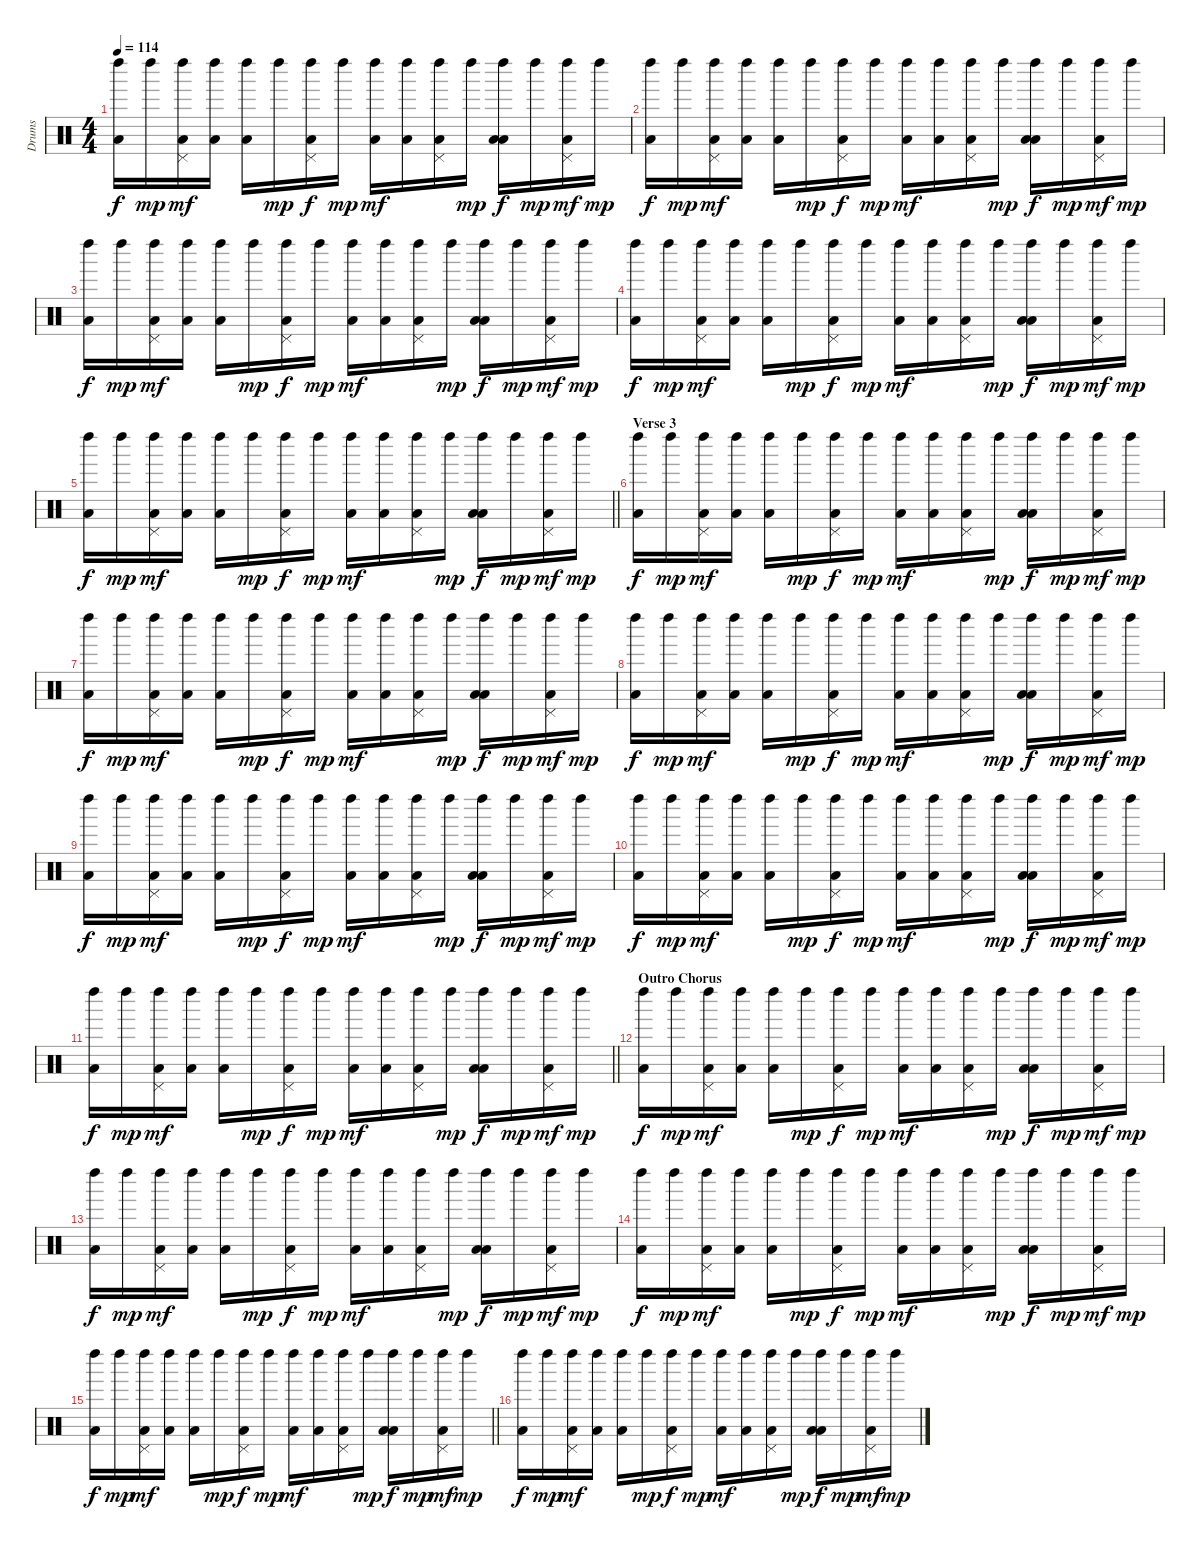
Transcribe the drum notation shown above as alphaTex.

\track ("Drums" "Drums") {instrument percussion}
\staff {score}
\articulation defaults
\ts (4 4)
\tempo 114
\clef neutral
\ks c
("Left Maraca (hit)" "Low Floor Tom (hit)").16{dy f} "Left Maraca (hit)".16{dy mp} ("Pedal Hi-Hat (hit)" "Left Maraca (hit)" "Low Floor Tom (hit)").16{dy mf} ("Left Maraca (hit)" "Low Tom (hit)").16 ("Left Maraca (hit)" "Low Floor Tom (hit)").16 "Left Maraca (hit)".16{dy mp} ("Pedal Hi-Hat (hit)" "Left Maraca (hit)" "Low Floor Tom (hit)").16{dy f} "Left Maraca (hit)".16{dy mp} ("Left Maraca (hit)" "Low Floor Tom (hit)").16{dy mf} ("Left Maraca (hit)" "Low Tom (hit)").16 ("Pedal Hi-Hat (hit)" "Left Maraca (hit)" "Low Floor Tom (hit)").16 "Left Maraca (hit)".16{dy mp} ("Left Maraca (hit)" "Low Tom (hit)" "Low Floor Tom (hit)").16{dy f} "Left Maraca (hit)".16{dy mp} ("Pedal Hi-Hat (hit)" "Left Maraca (hit)" "Low Floor Tom (hit)").16{dy mf} "Left Maraca (hit)".16{dy mp} |
("Left Maraca (hit)" "Low Floor Tom (hit)").16{dy f} "Left Maraca (hit)".16{dy mp} ("Pedal Hi-Hat (hit)" "Left Maraca (hit)" "Low Floor Tom (hit)").16{dy mf} ("Left Maraca (hit)" "Low Tom (hit)").16 ("Left Maraca (hit)" "Low Floor Tom (hit)").16 "Left Maraca (hit)".16{dy mp} ("Pedal Hi-Hat (hit)" "Left Maraca (hit)" "Low Floor Tom (hit)").16{dy f} "Left Maraca (hit)".16{dy mp} ("Left Maraca (hit)" "Low Floor Tom (hit)").16{dy mf} ("Left Maraca (hit)" "Low Tom (hit)").16 ("Pedal Hi-Hat (hit)" "Left Maraca (hit)" "Low Floor Tom (hit)").16 "Left Maraca (hit)".16{dy mp} ("Left Maraca (hit)" "Low Tom (hit)" "Low Floor Tom (hit)").16{dy f} "Left Maraca (hit)".16{dy mp} ("Pedal Hi-Hat (hit)" "Left Maraca (hit)" "Low Floor Tom (hit)").16{dy mf} "Left Maraca (hit)".16{dy mp} |
("Left Maraca (hit)" "Low Floor Tom (hit)").16{dy f} "Left Maraca (hit)".16{dy mp} ("Pedal Hi-Hat (hit)" "Left Maraca (hit)" "Low Floor Tom (hit)").16{dy mf} ("Left Maraca (hit)" "Low Tom (hit)").16 ("Left Maraca (hit)" "Low Floor Tom (hit)").16 "Left Maraca (hit)".16{dy mp} ("Pedal Hi-Hat (hit)" "Left Maraca (hit)" "Low Floor Tom (hit)").16{dy f} "Left Maraca (hit)".16{dy mp} ("Left Maraca (hit)" "Low Floor Tom (hit)").16{dy mf} ("Left Maraca (hit)" "Low Tom (hit)").16 ("Pedal Hi-Hat (hit)" "Left Maraca (hit)" "Low Floor Tom (hit)").16 "Left Maraca (hit)".16{dy mp} ("Left Maraca (hit)" "Low Tom (hit)" "Low Floor Tom (hit)").16{dy f} "Left Maraca (hit)".16{dy mp} ("Pedal Hi-Hat (hit)" "Left Maraca (hit)" "Low Floor Tom (hit)").16{dy mf} "Left Maraca (hit)".16{dy mp} |
("Left Maraca (hit)" "Low Floor Tom (hit)").16{dy f} "Left Maraca (hit)".16{dy mp} ("Pedal Hi-Hat (hit)" "Left Maraca (hit)" "Low Floor Tom (hit)").16{dy mf} ("Left Maraca (hit)" "Low Tom (hit)").16 ("Left Maraca (hit)" "Low Floor Tom (hit)").16 "Left Maraca (hit)".16{dy mp} ("Pedal Hi-Hat (hit)" "Left Maraca (hit)" "Low Floor Tom (hit)").16{dy f} "Left Maraca (hit)".16{dy mp} ("Left Maraca (hit)" "Low Floor Tom (hit)").16{dy mf} ("Left Maraca (hit)" "Low Tom (hit)").16 ("Pedal Hi-Hat (hit)" "Left Maraca (hit)" "Low Floor Tom (hit)").16 "Left Maraca (hit)".16{dy mp} ("Left Maraca (hit)" "Low Tom (hit)" "Low Floor Tom (hit)").16{dy f} "Left Maraca (hit)".16{dy mp} ("Pedal Hi-Hat (hit)" "Left Maraca (hit)" "Low Floor Tom (hit)").16{dy mf} "Left Maraca (hit)".16{dy mp} |
\barLineRight lightlight
("Left Maraca (hit)" "Low Floor Tom (hit)").16{dy f} "Left Maraca (hit)".16{dy mp} ("Pedal Hi-Hat (hit)" "Left Maraca (hit)" "Low Floor Tom (hit)").16{dy mf} ("Left Maraca (hit)" "Low Tom (hit)").16 ("Left Maraca (hit)" "Low Floor Tom (hit)").16 "Left Maraca (hit)".16{dy mp} ("Pedal Hi-Hat (hit)" "Left Maraca (hit)" "Low Floor Tom (hit)").16{dy f} "Left Maraca (hit)".16{dy mp} ("Left Maraca (hit)" "Low Floor Tom (hit)").16{dy mf} ("Left Maraca (hit)" "Low Tom (hit)").16 ("Pedal Hi-Hat (hit)" "Left Maraca (hit)" "Low Floor Tom (hit)").16 "Left Maraca (hit)".16{dy mp} ("Left Maraca (hit)" "Low Tom (hit)" "Low Floor Tom (hit)").16{dy f} "Left Maraca (hit)".16{dy mp} ("Pedal Hi-Hat (hit)" "Left Maraca (hit)" "Low Floor Tom (hit)").16{dy mf} "Left Maraca (hit)".16{dy mp} |
\section ("" "Verse 3")
("Left Maraca (hit)" "Low Floor Tom (hit)").16{dy f} "Left Maraca (hit)".16{dy mp} ("Pedal Hi-Hat (hit)" "Left Maraca (hit)" "Low Floor Tom (hit)").16{dy mf} ("Left Maraca (hit)" "Low Tom (hit)").16 ("Left Maraca (hit)" "Low Floor Tom (hit)").16 "Left Maraca (hit)".16{dy mp} ("Pedal Hi-Hat (hit)" "Left Maraca (hit)" "Low Floor Tom (hit)").16{dy f} "Left Maraca (hit)".16{dy mp} ("Left Maraca (hit)" "Low Floor Tom (hit)").16{dy mf} ("Left Maraca (hit)" "Low Tom (hit)").16 ("Pedal Hi-Hat (hit)" "Left Maraca (hit)" "Low Floor Tom (hit)").16 "Left Maraca (hit)".16{dy mp} ("Left Maraca (hit)" "Low Tom (hit)" "Low Floor Tom (hit)").16{dy f} "Left Maraca (hit)".16{dy mp} ("Pedal Hi-Hat (hit)" "Left Maraca (hit)" "Low Floor Tom (hit)").16{dy mf} "Left Maraca (hit)".16{dy mp} |
("Left Maraca (hit)" "Low Floor Tom (hit)").16{dy f} "Left Maraca (hit)".16{dy mp} ("Pedal Hi-Hat (hit)" "Left Maraca (hit)" "Low Floor Tom (hit)").16{dy mf} ("Left Maraca (hit)" "Low Tom (hit)").16 ("Left Maraca (hit)" "Low Floor Tom (hit)").16 "Left Maraca (hit)".16{dy mp} ("Pedal Hi-Hat (hit)" "Left Maraca (hit)" "Low Floor Tom (hit)").16{dy f} "Left Maraca (hit)".16{dy mp} ("Left Maraca (hit)" "Low Floor Tom (hit)").16{dy mf} ("Left Maraca (hit)" "Low Tom (hit)").16 ("Pedal Hi-Hat (hit)" "Left Maraca (hit)" "Low Floor Tom (hit)").16 "Left Maraca (hit)".16{dy mp} ("Left Maraca (hit)" "Low Tom (hit)" "Low Floor Tom (hit)").16{dy f} "Left Maraca (hit)".16{dy mp} ("Pedal Hi-Hat (hit)" "Left Maraca (hit)" "Low Floor Tom (hit)").16{dy mf} "Left Maraca (hit)".16{dy mp} |
("Left Maraca (hit)" "Low Floor Tom (hit)").16{dy f} "Left Maraca (hit)".16{dy mp} ("Pedal Hi-Hat (hit)" "Left Maraca (hit)" "Low Floor Tom (hit)").16{dy mf} ("Left Maraca (hit)" "Low Tom (hit)").16 ("Left Maraca (hit)" "Low Floor Tom (hit)").16 "Left Maraca (hit)".16{dy mp} ("Pedal Hi-Hat (hit)" "Left Maraca (hit)" "Low Floor Tom (hit)").16{dy f} "Left Maraca (hit)".16{dy mp} ("Left Maraca (hit)" "Low Floor Tom (hit)").16{dy mf} ("Left Maraca (hit)" "Low Tom (hit)").16 ("Pedal Hi-Hat (hit)" "Left Maraca (hit)" "Low Floor Tom (hit)").16 "Left Maraca (hit)".16{dy mp} ("Left Maraca (hit)" "Low Tom (hit)" "Low Floor Tom (hit)").16{dy f} "Left Maraca (hit)".16{dy mp} ("Pedal Hi-Hat (hit)" "Left Maraca (hit)" "Low Floor Tom (hit)").16{dy mf} "Left Maraca (hit)".16{dy mp} |
("Left Maraca (hit)" "Low Floor Tom (hit)").16{dy f} "Left Maraca (hit)".16{dy mp} ("Pedal Hi-Hat (hit)" "Left Maraca (hit)" "Low Floor Tom (hit)").16{dy mf} ("Left Maraca (hit)" "Low Tom (hit)").16 ("Left Maraca (hit)" "Low Floor Tom (hit)").16 "Left Maraca (hit)".16{dy mp} ("Pedal Hi-Hat (hit)" "Left Maraca (hit)" "Low Floor Tom (hit)").16{dy f} "Left Maraca (hit)".16{dy mp} ("Left Maraca (hit)" "Low Floor Tom (hit)").16{dy mf} ("Left Maraca (hit)" "Low Tom (hit)").16 ("Pedal Hi-Hat (hit)" "Left Maraca (hit)" "Low Floor Tom (hit)").16 "Left Maraca (hit)".16{dy mp} ("Left Maraca (hit)" "Low Tom (hit)" "Low Floor Tom (hit)").16{dy f} "Left Maraca (hit)".16{dy mp} ("Pedal Hi-Hat (hit)" "Left Maraca (hit)" "Low Floor Tom (hit)").16{dy mf} "Left Maraca (hit)".16{dy mp} |
("Left Maraca (hit)" "Low Floor Tom (hit)").16{dy f} "Left Maraca (hit)".16{dy mp} ("Pedal Hi-Hat (hit)" "Left Maraca (hit)" "Low Floor Tom (hit)").16{dy mf} ("Left Maraca (hit)" "Low Tom (hit)").16 ("Left Maraca (hit)" "Low Floor Tom (hit)").16 "Left Maraca (hit)".16{dy mp} ("Pedal Hi-Hat (hit)" "Left Maraca (hit)" "Low Floor Tom (hit)").16{dy f} "Left Maraca (hit)".16{dy mp} ("Left Maraca (hit)" "Low Floor Tom (hit)").16{dy mf} ("Left Maraca (hit)" "Low Tom (hit)").16 ("Pedal Hi-Hat (hit)" "Left Maraca (hit)" "Low Floor Tom (hit)").16 "Left Maraca (hit)".16{dy mp} ("Left Maraca (hit)" "Low Tom (hit)" "Low Floor Tom (hit)").16{dy f} "Left Maraca (hit)".16{dy mp} ("Pedal Hi-Hat (hit)" "Left Maraca (hit)" "Low Floor Tom (hit)").16{dy mf} "Left Maraca (hit)".16{dy mp} |
\barLineRight lightlight
("Left Maraca (hit)" "Low Floor Tom (hit)").16{dy f} "Left Maraca (hit)".16{dy mp} ("Pedal Hi-Hat (hit)" "Left Maraca (hit)" "Low Floor Tom (hit)").16{dy mf} ("Left Maraca (hit)" "Low Tom (hit)").16 ("Left Maraca (hit)" "Low Floor Tom (hit)").16 "Left Maraca (hit)".16{dy mp} ("Pedal Hi-Hat (hit)" "Left Maraca (hit)" "Low Floor Tom (hit)").16{dy f} "Left Maraca (hit)".16{dy mp} ("Left Maraca (hit)" "Low Floor Tom (hit)").16{dy mf} ("Left Maraca (hit)" "Low Tom (hit)").16 ("Pedal Hi-Hat (hit)" "Left Maraca (hit)" "Low Floor Tom (hit)").16 "Left Maraca (hit)".16{dy mp} ("Left Maraca (hit)" "Low Tom (hit)" "Low Floor Tom (hit)").16{dy f} "Left Maraca (hit)".16{dy mp} ("Pedal Hi-Hat (hit)" "Left Maraca (hit)" "Low Floor Tom (hit)").16{dy mf} "Left Maraca (hit)".16{dy mp} |
\section ("" "Outro Chorus")
("Left Maraca (hit)" "Low Floor Tom (hit)").16{dy f} "Left Maraca (hit)".16{dy mp} ("Pedal Hi-Hat (hit)" "Left Maraca (hit)" "Low Floor Tom (hit)").16{dy mf} ("Left Maraca (hit)" "Low Tom (hit)").16 ("Left Maraca (hit)" "Low Floor Tom (hit)").16 "Left Maraca (hit)".16{dy mp} ("Pedal Hi-Hat (hit)" "Left Maraca (hit)" "Low Floor Tom (hit)").16{dy f} "Left Maraca (hit)".16{dy mp} ("Left Maraca (hit)" "Low Floor Tom (hit)").16{dy mf} ("Left Maraca (hit)" "Low Tom (hit)").16 ("Pedal Hi-Hat (hit)" "Left Maraca (hit)" "Low Floor Tom (hit)").16 "Left Maraca (hit)".16{dy mp} ("Left Maraca (hit)" "Low Tom (hit)" "Low Floor Tom (hit)").16{dy f} "Left Maraca (hit)".16{dy mp} ("Pedal Hi-Hat (hit)" "Left Maraca (hit)" "Low Floor Tom (hit)").16{dy mf} "Left Maraca (hit)".16{dy mp} |
("Left Maraca (hit)" "Low Floor Tom (hit)").16{dy f} "Left Maraca (hit)".16{dy mp} ("Pedal Hi-Hat (hit)" "Left Maraca (hit)" "Low Floor Tom (hit)").16{dy mf} ("Left Maraca (hit)" "Low Tom (hit)").16 ("Left Maraca (hit)" "Low Floor Tom (hit)").16 "Left Maraca (hit)".16{dy mp} ("Pedal Hi-Hat (hit)" "Left Maraca (hit)" "Low Floor Tom (hit)").16{dy f} "Left Maraca (hit)".16{dy mp} ("Left Maraca (hit)" "Low Floor Tom (hit)").16{dy mf} ("Left Maraca (hit)" "Low Tom (hit)").16 ("Pedal Hi-Hat (hit)" "Left Maraca (hit)" "Low Floor Tom (hit)").16 "Left Maraca (hit)".16{dy mp} ("Left Maraca (hit)" "Low Tom (hit)" "Low Floor Tom (hit)").16{dy f} "Left Maraca (hit)".16{dy mp} ("Pedal Hi-Hat (hit)" "Left Maraca (hit)" "Low Floor Tom (hit)").16{dy mf} "Left Maraca (hit)".16{dy mp} |
("Left Maraca (hit)" "Low Floor Tom (hit)").16{dy f} "Left Maraca (hit)".16{dy mp} ("Pedal Hi-Hat (hit)" "Left Maraca (hit)" "Low Floor Tom (hit)").16{dy mf} ("Left Maraca (hit)" "Low Tom (hit)").16 ("Left Maraca (hit)" "Low Floor Tom (hit)").16 "Left Maraca (hit)".16{dy mp} ("Pedal Hi-Hat (hit)" "Left Maraca (hit)" "Low Floor Tom (hit)").16{dy f} "Left Maraca (hit)".16{dy mp} ("Left Maraca (hit)" "Low Floor Tom (hit)").16{dy mf} ("Left Maraca (hit)" "Low Tom (hit)").16 ("Pedal Hi-Hat (hit)" "Left Maraca (hit)" "Low Floor Tom (hit)").16 "Left Maraca (hit)".16{dy mp} ("Left Maraca (hit)" "Low Tom (hit)" "Low Floor Tom (hit)").16{dy f} "Left Maraca (hit)".16{dy mp} ("Pedal Hi-Hat (hit)" "Left Maraca (hit)" "Low Floor Tom (hit)").16{dy mf} "Left Maraca (hit)".16{dy mp} |
\barLineRight lightlight
("Left Maraca (hit)" "Low Floor Tom (hit)").16{dy f} "Left Maraca (hit)".16{dy mp} ("Pedal Hi-Hat (hit)" "Left Maraca (hit)" "Low Floor Tom (hit)").16{dy mf} ("Left Maraca (hit)" "Low Tom (hit)").16 ("Left Maraca (hit)" "Low Floor Tom (hit)").16 "Left Maraca (hit)".16{dy mp} ("Pedal Hi-Hat (hit)" "Left Maraca (hit)" "Low Floor Tom (hit)").16{dy f} "Left Maraca (hit)".16{dy mp} ("Left Maraca (hit)" "Low Floor Tom (hit)").16{dy mf} ("Left Maraca (hit)" "Low Tom (hit)").16 ("Pedal Hi-Hat (hit)" "Left Maraca (hit)" "Low Floor Tom (hit)").16 "Left Maraca (hit)".16{dy mp} ("Left Maraca (hit)" "Low Tom (hit)" "Low Floor Tom (hit)").16{dy f} "Left Maraca (hit)".16{dy mp} ("Pedal Hi-Hat (hit)" "Left Maraca (hit)" "Low Floor Tom (hit)").16{dy mf} "Left Maraca (hit)".16{dy mp} |
("Left Maraca (hit)" "Low Floor Tom (hit)").16{dy f} "Left Maraca (hit)".16{dy mp} ("Pedal Hi-Hat (hit)" "Left Maraca (hit)" "Low Floor Tom (hit)").16{dy mf} ("Left Maraca (hit)" "Low Tom (hit)").16 ("Left Maraca (hit)" "Low Floor Tom (hit)").16 "Left Maraca (hit)".16{dy mp} ("Pedal Hi-Hat (hit)" "Left Maraca (hit)" "Low Floor Tom (hit)").16{dy f} "Left Maraca (hit)".16{dy mp} ("Left Maraca (hit)" "Low Floor Tom (hit)").16{dy mf} ("Left Maraca (hit)" "Low Tom (hit)").16 ("Pedal Hi-Hat (hit)" "Left Maraca (hit)" "Low Floor Tom (hit)").16 "Left Maraca (hit)".16{dy mp} ("Left Maraca (hit)" "Low Tom (hit)" "Low Floor Tom (hit)").16{dy f} "Left Maraca (hit)".16{dy mp} ("Pedal Hi-Hat (hit)" "Left Maraca (hit)" "Low Floor Tom (hit)").16{dy mf} "Left Maraca (hit)".16{dy mp}
